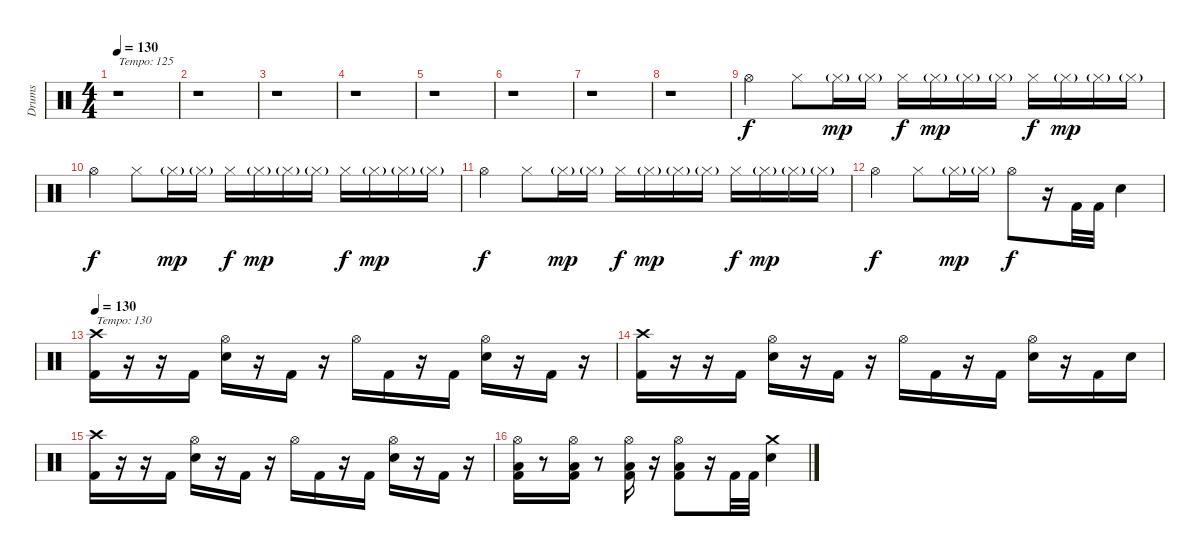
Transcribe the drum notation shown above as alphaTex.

\track ("Drums" "Drums") {instrument percussion}
\staff {score}
\articulation defaults
\ts (4 4)
\tempo 130
\tempo 125
\tempo 130
\clef neutral
\ks c
r.1{txt "Tempo: 125" dy f} |
r.1 |
r.1 |
r.1 |
r.1 |
r.1 |
r.1 |
r.1 |
"Hi-Hat (open)".4 "Hi-Hat (closed)".8 "Hi-Hat (closed)"{g}.16{dy mp} "Hi-Hat (closed)"{g}.16 "Hi-Hat (closed)".16{dy f} "Hi-Hat (closed)"{g}.16{dy mp} "Hi-Hat (closed)"{g}.16 "Hi-Hat (closed)"{g}.16 "Hi-Hat (closed)".16{dy f} "Hi-Hat (closed)"{g}.16{dy mp} "Hi-Hat (closed)"{g}.16 "Hi-Hat (closed)"{g}.16 |
"Hi-Hat (open)".4{dy f} "Hi-Hat (closed)".8 "Hi-Hat (closed)"{g}.16{dy mp} "Hi-Hat (closed)"{g}.16 "Hi-Hat (closed)".16{dy f} "Hi-Hat (closed)"{g}.16{dy mp} "Hi-Hat (closed)"{g}.16 "Hi-Hat (closed)"{g}.16 "Hi-Hat (closed)".16{dy f} "Hi-Hat (closed)"{g}.16{dy mp} "Hi-Hat (closed)"{g}.16 "Hi-Hat (closed)"{g}.16 |
"Hi-Hat (open)".4{dy f} "Hi-Hat (closed)".8 "Hi-Hat (closed)"{g}.16{dy mp} "Hi-Hat (closed)"{g}.16 "Hi-Hat (closed)".16{dy f} "Hi-Hat (closed)"{g}.16{dy mp} "Hi-Hat (closed)"{g}.16 "Hi-Hat (closed)"{g}.16 "Hi-Hat (closed)".16{dy f} "Hi-Hat (closed)"{g}.16{dy mp} "Hi-Hat (closed)"{g}.16 "Hi-Hat (closed)"{g}.16 |
"Hi-Hat (open)".4{dy f} "Hi-Hat (closed)".8 "Hi-Hat (closed)"{g}.16{dy mp} "Hi-Hat (closed)"{g}.16 "Hi-Hat (open)".8{dy f} r.16 "Kick (hit) 2".32 "Kick (hit) 2".32 "Electric Snare (hit)".4 |
\tempo 130
("Crash high (hit)" "Kick (hit) 2").16{txt "Tempo: 130"} r.16 r.16 "Kick (hit) 2".16 ("Hi-Hat (open)" "Electric Snare (hit)").16 r.16 "Kick (hit) 2".16 r.16 "Hi-Hat (open)".16 "Kick (hit) 2".16 r.16 "Kick (hit) 2".16 ("Hi-Hat (open)" "Electric Snare (hit)").16 r.16 "Kick (hit) 2".16 r.16 |
("Crash high (hit)" "Kick (hit) 2").16 r.16 r.16 "Kick (hit) 2".16 ("Hi-Hat (open)" "Electric Snare (hit)").16 r.16 "Kick (hit) 2".16 r.16 "Hi-Hat (open)".16 "Kick (hit) 2".16 r.16 "Kick (hit) 2".16 ("Hi-Hat (open)" "Electric Snare (hit)").16 r.16 "Kick (hit) 2".16 "Electric Snare (hit)".16 |
("Crash high (hit)" "Kick (hit) 2").16 r.16 r.16 "Kick (hit) 2".16 ("Hi-Hat (open)" "Electric Snare (hit)").16 r.16 "Kick (hit) 2".16 r.16 "Hi-Hat (open)".16 "Kick (hit) 2".16 r.16 "Kick (hit) 2".16 ("Hi-Hat (open)" "Electric Snare (hit)").16 r.16 "Kick (hit) 2".16 r.16 |
("Hi-Hat (open)" "Low Tom (hit)" "Kick (hit) 2").16 r.8 ("Hi-Hat (open)" "Low Tom (hit)" "Kick (hit) 2").16 r.8 ("Hi-Hat (open)" "Low Tom (hit)" "Kick (hit) 2").16 r.16 ("Hi-Hat (open)" "Low Tom (hit)" "Kick (hit) 2").8 r.16 "Kick (hit) 2".32 "Kick (hit) 2".32 ("Crash medium (hit)" "Electric Snare (hit)").4
